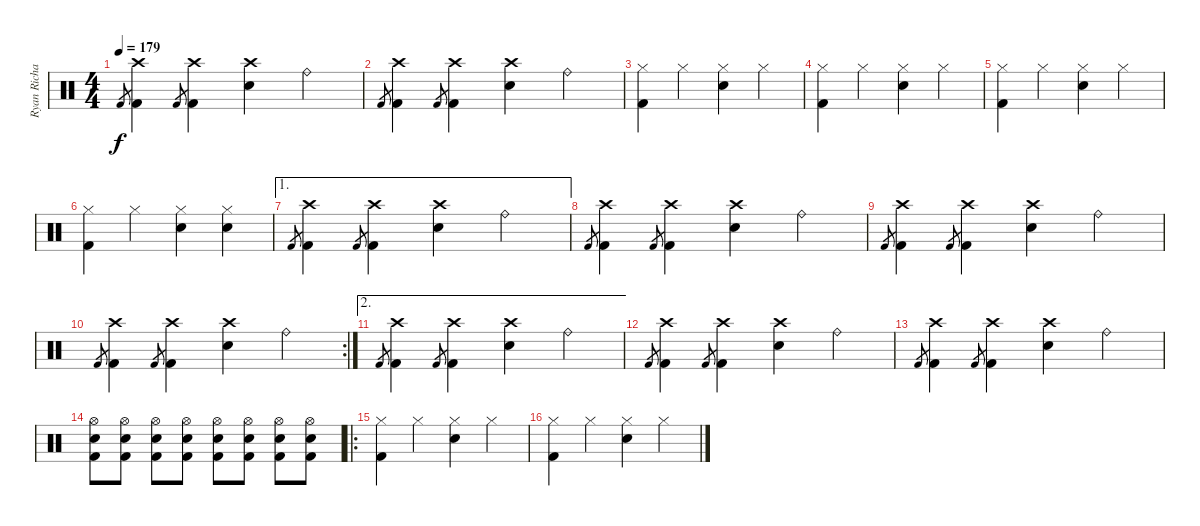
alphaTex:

\track ("Ryan Richards" "Ryan Richa") {instrument percussion}
\staff {score}
\articulation defaults
\ts (4 4)
\tempo 179
\clef neutral
\ks c "Kick (hit) 2".8{gr dy f}
("Crash high (hit)" "Kick (hit) 2").4 "Kick (hit) 2".8{gr} ("Crash high (hit)" "Kick (hit) 2").4 ("Crash high (hit)" "Snare (hit) 2").4 "Ride (bell)".4 |
"Kick (hit) 2".8{gr} ("Crash high (hit)" "Kick (hit) 2").4 "Kick (hit) 2".8{gr} ("Crash high (hit)" "Kick (hit) 2").4 ("Crash high (hit)" "Snare (hit) 2").4 "Ride (bell)".4 |
("Hi-Hat (closed)" "Kick (hit) 2").4 "Hi-Hat (closed)".4 ("Hi-Hat (closed)" "Snare (hit) 2").4 "Hi-Hat (closed)".4 |
("Hi-Hat (closed)" "Kick (hit) 2").4 "Hi-Hat (closed)".4 ("Hi-Hat (closed)" "Snare (hit) 2").4 "Hi-Hat (closed)".4 |
("Hi-Hat (closed)" "Kick (hit) 2").4 "Hi-Hat (closed)".4 ("Hi-Hat (closed)" "Snare (hit) 2").4 "Hi-Hat (closed)".4 |
("Hi-Hat (closed)" "Kick (hit) 2").4 "Hi-Hat (closed)".4 ("Hi-Hat (closed)" "Snare (hit) 2").4 ("Hi-Hat (closed)" "Snare (hit) 2").4 |
\ae 1 "Kick (hit) 2".8{gr}
("Crash high (hit)" "Kick (hit) 2").4 "Kick (hit) 2".8{gr} ("Crash high (hit)" "Kick (hit) 2").4 ("Crash high (hit)" "Snare (hit) 2").4 "Ride (bell)".4 |
"Kick (hit) 2".8{gr} ("Crash high (hit)" "Kick (hit) 2").4 "Kick (hit) 2".8{gr} ("Crash high (hit)" "Kick (hit) 2").4 ("Crash high (hit)" "Snare (hit) 2").4 "Ride (bell)".4 |
"Kick (hit) 2".8{gr} ("Crash high (hit)" "Kick (hit) 2").4 "Kick (hit) 2".8{gr} ("Crash high (hit)" "Kick (hit) 2").4 ("Crash high (hit)" "Snare (hit) 2").4 "Ride (bell)".4 |
\rc 2 "Kick (hit) 2".8{gr}
("Crash high (hit)" "Kick (hit) 2").4 "Kick (hit) 2".8{gr} ("Crash high (hit)" "Kick (hit) 2").4 ("Crash high (hit)" "Snare (hit) 2").4 "Ride (bell)".4 |
\ae 2 "Kick (hit) 2".8{gr}
("Crash high (hit)" "Kick (hit) 2").4 "Kick (hit) 2".8{gr} ("Crash high (hit)" "Kick (hit) 2").4 ("Crash high (hit)" "Snare (hit) 2").4 "Ride (bell)".4 |
"Kick (hit) 2".8{gr} ("Crash high (hit)" "Kick (hit) 2").4 "Kick (hit) 2".8{gr} ("Crash high (hit)" "Kick (hit) 2").4 ("Crash high (hit)" "Snare (hit) 2").4 "Ride (bell)".4 |
"Kick (hit) 2".8{gr} ("Crash high (hit)" "Kick (hit) 2").4 "Kick (hit) 2".8{gr} ("Crash high (hit)" "Kick (hit) 2").4 ("Crash high (hit)" "Snare (hit) 2").4 "Ride (bell)".4 |
("Hi-Hat (open)" "Snare (hit) 2" "Kick (hit) 2").8 ("Hi-Hat (open)" "Snare (hit) 2" "Kick (hit) 2").8 ("Hi-Hat (open)" "Snare (hit) 2" "Kick (hit) 2").8 ("Hi-Hat (open)" "Snare (hit) 2" "Kick (hit) 2").8 ("Hi-Hat (open)" "Snare (hit) 2" "Kick (hit) 2").8 ("Hi-Hat (open)" "Snare (hit) 2" "Kick (hit) 2").8 ("Hi-Hat (open)" "Snare (hit) 2" "Kick (hit) 2").8 ("Hi-Hat (open)" "Snare (hit) 2" "Kick (hit) 2").8 |
\ro
("Hi-Hat (closed)" "Kick (hit) 2").4 "Hi-Hat (closed)".4 ("Hi-Hat (closed)" "Snare (hit) 2").4 "Hi-Hat (closed)".4 |
("Hi-Hat (closed)" "Kick (hit) 2").4 "Hi-Hat (closed)".4 ("Hi-Hat (closed)" "Snare (hit) 2").4 "Hi-Hat (closed)".4
